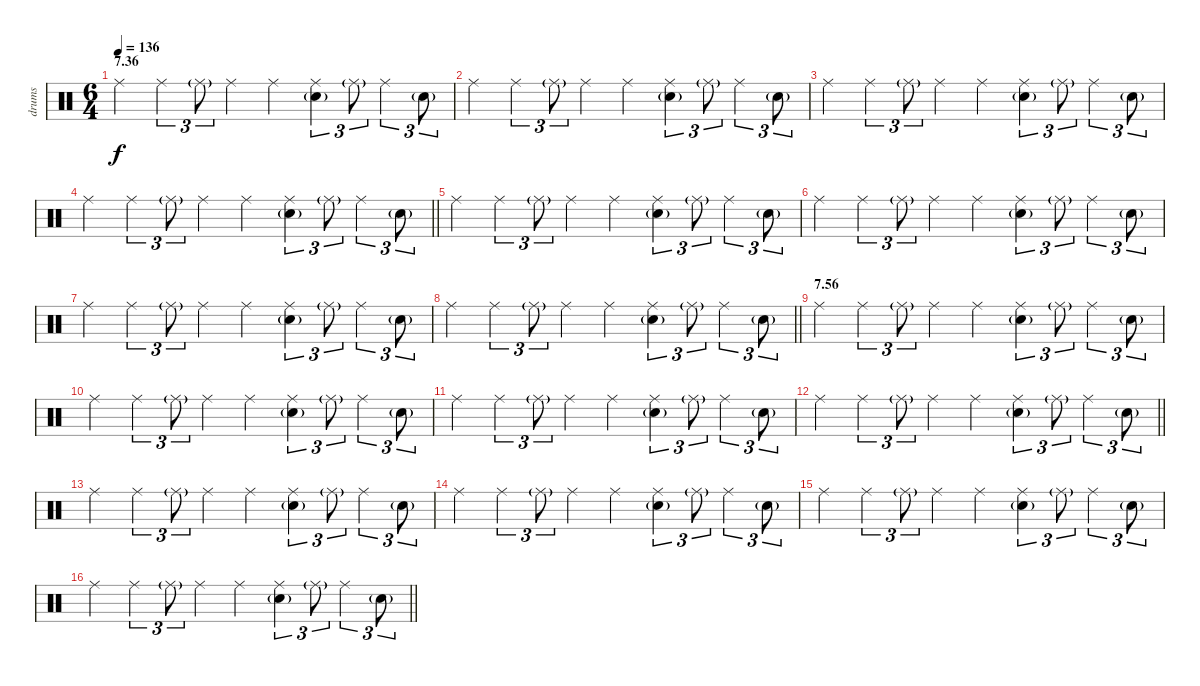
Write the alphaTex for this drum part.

\track ("drums" "drums") {instrument percussion}
\staff {score}
\articulation defaults
\ts (6 4)
\section ("" "7.36")
\tempo 136
\clef neutral
\ks c "Ride (middle)".4{dy f} "Ride (middle)".4{tu (3 2)} "Ride (middle)"{g}.8{tu (3 2)} "Ride (middle)".4 "Ride (middle)".4
("Ride (middle)" "Electric Snare (hit)"{g}).4{tu (3 2)} "Ride (middle)"{g}.8{tu (3 2)} "Ride (middle)".4{tu (3 2)} "Electric Snare (hit)"{g}.8{tu (3 2)} |
"Ride (middle)".4 "Ride (middle)".4{tu (3 2)} "Ride (middle)"{g}.8{tu (3 2)} "Ride (middle)".4 "Ride (middle)".4 ("Ride (middle)" "Electric Snare (hit)"{g}).4{tu (3 2)} "Ride (middle)"{g}.8{tu (3 2)} "Ride (middle)".4{tu (3 2)} "Electric Snare (hit)"{g}.8{tu (3 2)} |
"Ride (middle)".4 "Ride (middle)".4{tu (3 2)} "Ride (middle)"{g}.8{tu (3 2)} "Ride (middle)".4 "Ride (middle)".4 ("Ride (middle)" "Electric Snare (hit)"{g}).4{tu (3 2)} "Ride (middle)"{g}.8{tu (3 2)} "Ride (middle)".4{tu (3 2)} "Electric Snare (hit)"{g}.8{tu (3 2)} |
\barLineRight lightlight "Ride (middle)".4 "Ride (middle)".4{tu (3 2)} "Ride (middle)"{g}.8{tu (3 2)} "Ride (middle)".4 "Ride (middle)".4
("Ride (middle)" "Electric Snare (hit)"{g}).4{tu (3 2)} "Ride (middle)"{g}.8{tu (3 2)} "Ride (middle)".4{tu (3 2)} "Electric Snare (hit)"{g}.8{tu (3 2)} |
"Ride (middle)".4 "Ride (middle)".4{tu (3 2)} "Ride (middle)"{g}.8{tu (3 2)} "Ride (middle)".4 "Ride (middle)".4 ("Ride (middle)" "Electric Snare (hit)"{g}).4{tu (3 2)} "Ride (middle)"{g}.8{tu (3 2)} "Ride (middle)".4{tu (3 2)} "Electric Snare (hit)"{g}.8{tu (3 2)} |
"Ride (middle)".4 "Ride (middle)".4{tu (3 2)} "Ride (middle)"{g}.8{tu (3 2)} "Ride (middle)".4 "Ride (middle)".4 ("Ride (middle)" "Electric Snare (hit)"{g}).4{tu (3 2)} "Ride (middle)"{g}.8{tu (3 2)} "Ride (middle)".4{tu (3 2)} "Electric Snare (hit)"{g}.8{tu (3 2)} |
"Ride (middle)".4 "Ride (middle)".4{tu (3 2)} "Ride (middle)"{g}.8{tu (3 2)} "Ride (middle)".4 "Ride (middle)".4 ("Ride (middle)" "Electric Snare (hit)"{g}).4{tu (3 2)} "Ride (middle)"{g}.8{tu (3 2)} "Ride (middle)".4{tu (3 2)} "Electric Snare (hit)"{g}.8{tu (3 2)} |
\barLineRight lightlight "Ride (middle)".4 "Ride (middle)".4{tu (3 2)} "Ride (middle)"{g}.8{tu (3 2)} "Ride (middle)".4 "Ride (middle)".4
("Ride (middle)" "Electric Snare (hit)"{g}).4{tu (3 2)} "Ride (middle)"{g}.8{tu (3 2)} "Ride (middle)".4{tu (3 2)} "Electric Snare (hit)"{g}.8{tu (3 2)} |
\section ("" "7.56")
"Ride (middle)".4 "Ride (middle)".4{tu (3 2)} "Ride (middle)"{g}.8{tu (3 2)} "Ride (middle)".4 "Ride (middle)".4 ("Ride (middle)" "Electric Snare (hit)"{g}).4{tu (3 2)} "Ride (middle)"{g}.8{tu (3 2)} "Ride (middle)".4{tu (3 2)} "Electric Snare (hit)"{g}.8{tu (3 2)} |
"Ride (middle)".4 "Ride (middle)".4{tu (3 2)} "Ride (middle)"{g}.8{tu (3 2)} "Ride (middle)".4 "Ride (middle)".4 ("Ride (middle)" "Electric Snare (hit)"{g}).4{tu (3 2)} "Ride (middle)"{g}.8{tu (3 2)} "Ride (middle)".4{tu (3 2)} "Electric Snare (hit)"{g}.8{tu (3 2)} |
"Ride (middle)".4 "Ride (middle)".4{tu (3 2)} "Ride (middle)"{g}.8{tu (3 2)} "Ride (middle)".4 "Ride (middle)".4 ("Ride (middle)" "Electric Snare (hit)"{g}).4{tu (3 2)} "Ride (middle)"{g}.8{tu (3 2)} "Ride (middle)".4{tu (3 2)} "Electric Snare (hit)"{g}.8{tu (3 2)} |
\barLineRight lightlight "Ride (middle)".4 "Ride (middle)".4{tu (3 2)} "Ride (middle)"{g}.8{tu (3 2)} "Ride (middle)".4 "Ride (middle)".4
("Ride (middle)" "Electric Snare (hit)"{g}).4{tu (3 2)} "Ride (middle)"{g}.8{tu (3 2)} "Ride (middle)".4{tu (3 2)} "Electric Snare (hit)"{g}.8{tu (3 2)} |
"Ride (middle)".4 "Ride (middle)".4{tu (3 2)} "Ride (middle)"{g}.8{tu (3 2)} "Ride (middle)".4 "Ride (middle)".4 ("Ride (middle)" "Electric Snare (hit)"{g}).4{tu (3 2)} "Ride (middle)"{g}.8{tu (3 2)} "Ride (middle)".4{tu (3 2)} "Electric Snare (hit)"{g}.8{tu (3 2)} |
"Ride (middle)".4 "Ride (middle)".4{tu (3 2)} "Ride (middle)"{g}.8{tu (3 2)} "Ride (middle)".4 "Ride (middle)".4 ("Ride (middle)" "Electric Snare (hit)"{g}).4{tu (3 2)} "Ride (middle)"{g}.8{tu (3 2)} "Ride (middle)".4{tu (3 2)} "Electric Snare (hit)"{g}.8{tu (3 2)} |
"Ride (middle)".4 "Ride (middle)".4{tu (3 2)} "Ride (middle)"{g}.8{tu (3 2)} "Ride (middle)".4 "Ride (middle)".4 ("Ride (middle)" "Electric Snare (hit)"{g}).4{tu (3 2)} "Ride (middle)"{g}.8{tu (3 2)} "Ride (middle)".4{tu (3 2)} "Electric Snare (hit)"{g}.8{tu (3 2)} |
\barLineRight lightlight "Ride (middle)".4 "Ride (middle)".4{tu (3 2)} "Ride (middle)"{g}.8{tu (3 2)} "Ride (middle)".4 "Ride (middle)".4
("Ride (middle)" "Electric Snare (hit)"{g}).4{tu (3 2)} "Ride (middle)"{g}.8{tu (3 2)} "Ride (middle)".4{tu (3 2)} "Electric Snare (hit)"{g}.8{tu (3 2)}
